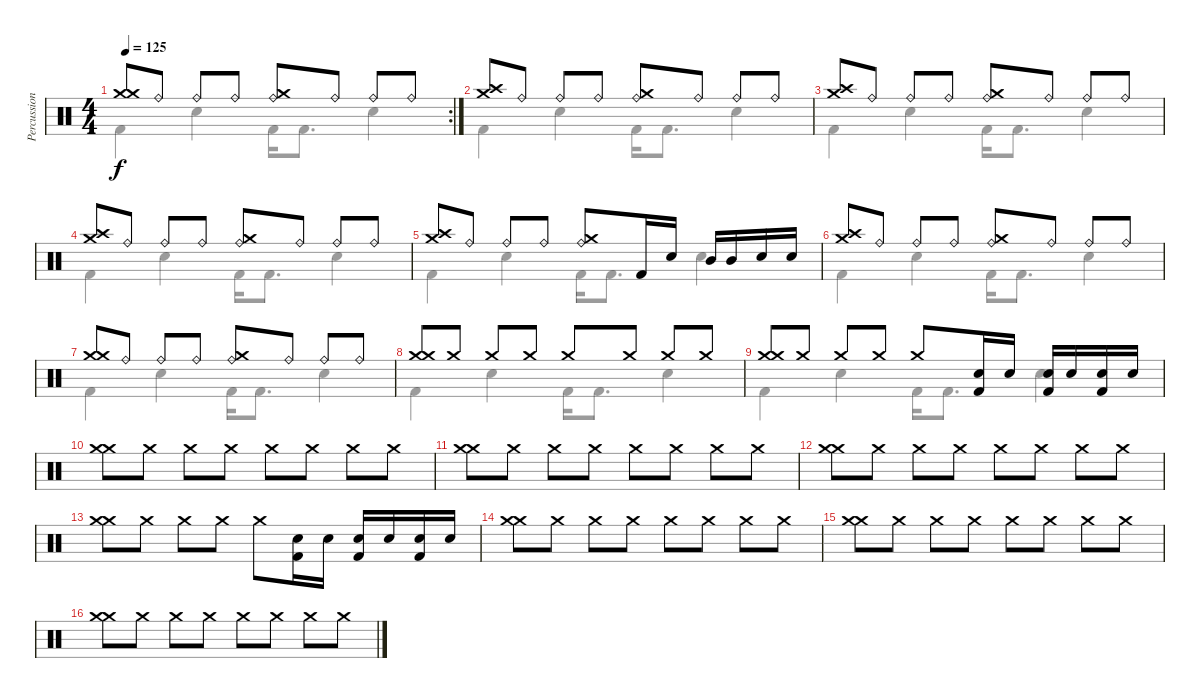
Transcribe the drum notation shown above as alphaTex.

\track ("Percussion" "Percussion") {instrument percussion}
\staff {score}
\articulation defaults
\voice
\rc 2
\ts (4 4)
\tempo 125
\clef neutral
\ks c
("Crash medium (hit)" "Crash medium (hit)").8{dy f} "Ride (bell)".8 "Ride (bell)".8 "Ride (bell)".8 ("Crash medium (hit)" "Ride (bell)").8 "Ride (bell)".8 "Ride (bell)".8 "Ride (bell)".8 |
("Crash medium (hit)" "Crash high (hit)").8 "Ride (bell)".8 "Ride (bell)".8 "Ride (bell)".8 ("Crash medium (hit)" "Ride (bell)").8 "Ride (bell)".8 "Ride (bell)".8 "Ride (bell)".8 |
("Crash medium (hit)" "Crash high (hit)").8 "Ride (bell)".8 "Ride (bell)".8 "Ride (bell)".8 ("Crash medium (hit)" "Ride (bell)").8 "Ride (bell)".8 "Ride (bell)".8 "Ride (bell)".8 |
("Crash medium (hit)" "Crash high (hit)").8 "Ride (bell)".8 "Ride (bell)".8 "Ride (bell)".8 ("Crash medium (hit)" "Ride (bell)").8 "Ride (bell)".8 "Ride (bell)".8 "Ride (bell)".8 |
("Crash medium (hit)" "Crash high (hit)").8 "Ride (bell)".8 "Ride (bell)".8 "Ride (bell)".8 ("Crash medium (hit)" "Ride (bell)").8 "Kick (hit) 2".16 "Snare (hit) 2".16 "Mid Tom (hit)".16 "Mid Tom (hit)".16 "Snare (hit) 2".16 "Electric Snare (hit)".16 |
("Crash medium (hit)" "Crash high (hit)").8 "Ride (bell)".8 "Ride (bell)".8 "Ride (bell)".8 ("Crash medium (hit)" "Ride (bell)").8 "Ride (bell)".8 "Ride (bell)".8 "Ride (bell)".8 |
("Crash medium (hit)" "Crash medium (hit)").8 "Ride (bell)".8 "Ride (bell)".8 "Ride (bell)".8 ("Crash medium (hit)" "Ride (bell)").8 "Ride (bell)".8 "Ride (bell)".8 "Ride (bell)".8 |
("Crash medium (hit)" "Crash medium (hit)").8 "Crash medium (hit)".8 "Crash medium (hit)".8 "Crash medium (hit)".8 "Crash medium (hit)".8 "Crash medium (hit)".8 "Crash medium (hit)".8 "Crash medium (hit)".8 |
("Crash medium (hit)" "Crash medium (hit)").8 "Crash medium (hit)".8 "Crash medium (hit)".8 "Crash medium (hit)".8 "Crash medium (hit)".8 ("Kick (hit) 2" "Electric Snare (hit)").16 "Electric Snare (hit)".16 ("Kick (hit) 2" "Electric Snare (hit)").16 "Electric Snare (hit)".16 ("Kick (hit) 2" "Electric Snare (hit)").16 "Electric Snare (hit)".16 |
("Crash medium (hit)" "Crash medium (hit)").8 "Crash medium (hit)".8 "Crash medium (hit)".8 "Crash medium (hit)".8 "Crash medium (hit)".8 "Crash medium (hit)".8 "Crash medium (hit)".8 "Crash medium (hit)".8 |
("Crash medium (hit)" "Crash medium (hit)").8 "Crash medium (hit)".8 "Crash medium (hit)".8 "Crash medium (hit)".8 "Crash medium (hit)".8 "Crash medium (hit)".8 "Crash medium (hit)".8 "Crash medium (hit)".8 |
("Crash medium (hit)" "Crash medium (hit)").8 "Crash medium (hit)".8 "Crash medium (hit)".8 "Crash medium (hit)".8 "Crash medium (hit)".8 "Crash medium (hit)".8 "Crash medium (hit)".8 "Crash medium (hit)".8 |
("Crash medium (hit)" "Crash medium (hit)").8 "Crash medium (hit)".8 "Crash medium (hit)".8 "Crash medium (hit)".8 "Crash medium (hit)".8 ("Kick (hit) 2" "Electric Snare (hit)").16 "Electric Snare (hit)".16 ("Kick (hit) 2" "Electric Snare (hit)").16 "Electric Snare (hit)".16 ("Kick (hit) 2" "Electric Snare (hit)").16 "Electric Snare (hit)".16 |
("Crash medium (hit)" "Crash medium (hit)").8 "Crash medium (hit)".8 "Crash medium (hit)".8 "Crash medium (hit)".8 "Crash medium (hit)".8 "Crash medium (hit)".8 "Crash medium (hit)".8 "Crash medium (hit)".8 |
("Crash medium (hit)" "Crash medium (hit)").8 "Crash medium (hit)".8 "Crash medium (hit)".8 "Crash medium (hit)".8 "Crash medium (hit)".8 "Crash medium (hit)".8 "Crash medium (hit)".8 "Crash medium (hit)".8 |
("Crash medium (hit)" "Crash medium (hit)").8 "Crash medium (hit)".8 "Crash medium (hit)".8 "Crash medium (hit)".8 "Crash medium (hit)".8 "Crash medium (hit)".8 "Crash medium (hit)".8 "Crash medium (hit)".8
\voice
\clef neutral
\ottava regular
\simile none
\ks c "Kick (hit) 2".4{dy f} "Electric Snare (hit)".4 "Kick (hit) 2".16 "Kick (hit) 2".8{d} "Electric Snare (hit)".4
|
"Kick (hit) 2".4 "Electric Snare (hit)".4 "Kick (hit) 2".16 "Kick (hit) 2".8{d} "Electric Snare (hit)".4 |
"Kick (hit) 2".4 "Electric Snare (hit)".4 "Kick (hit) 2".16 "Kick (hit) 2".8{d} "Electric Snare (hit)".4 |
"Kick (hit) 2".4 "Electric Snare (hit)".4 "Kick (hit) 2".16 "Kick (hit) 2".8{d} "Electric Snare (hit)".4 |
"Kick (hit) 2".4 "Electric Snare (hit)".4 "Kick (hit) 2".16 "Kick (hit) 2".8{d} "Electric Snare (hit)".4 |
"Kick (hit) 2".4 "Electric Snare (hit)".4 "Kick (hit) 2".16 "Kick (hit) 2".8{d} "Electric Snare (hit)".4 |
"Kick (hit) 2".4 "Electric Snare (hit)".4 "Kick (hit) 2".16 "Kick (hit) 2".8{d} "Electric Snare (hit)".4 |
"Kick (hit) 2".4 "Electric Snare (hit)".4 "Kick (hit) 2".16 "Kick (hit) 2".8{d} "Electric Snare (hit)".4 |
"Kick (hit) 2".4 "Electric Snare (hit)".4 "Kick (hit) 2".16 "Kick (hit) 2".8{d} "Electric Snare (hit)".4 |
|
|
|
|
|
|
